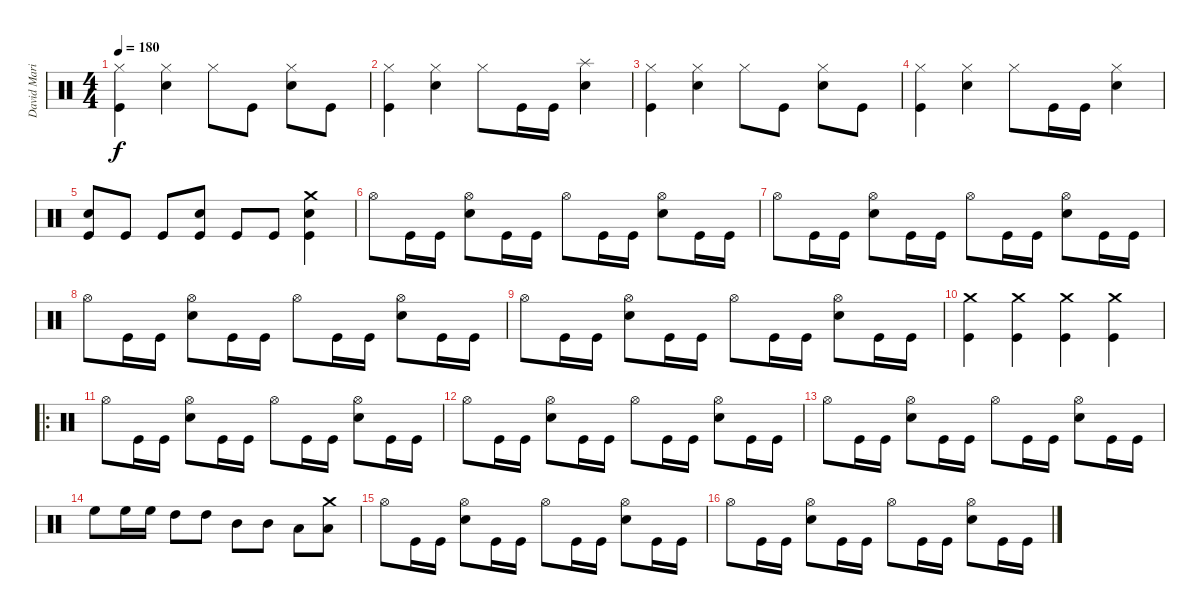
\track ("David Marinero" "David Mari") {instrument percussion}
\staff {score}
\articulation defaults
\ts (4 4)
\tempo 180
\clef neutral
\ks c
("Hi-Hat (closed)" "Kick (hit)").4{dy f} ("Hi-Hat (closed)" "Snare (hit) 2").4 "Hi-Hat (closed)".8 "Kick (hit)".8 ("Hi-Hat (closed)" "Snare (hit) 2").8 "Kick (hit)".8 |
("Hi-Hat (closed)" "Kick (hit)").4 ("Hi-Hat (closed)" "Snare (hit) 2").4 "Hi-Hat (closed)".8 "Kick (hit)".16 "Kick (hit)".16 ("Splash (hit)" "Snare (hit) 2").4 |
("Hi-Hat (closed)" "Kick (hit)").4 ("Hi-Hat (closed)" "Snare (hit) 2").4 "Hi-Hat (closed)".8 "Kick (hit)".8 ("Hi-Hat (closed)" "Snare (hit) 2").8 "Kick (hit)".8 |
("Hi-Hat (closed)" "Kick (hit)").4 ("Hi-Hat (closed)" "Snare (hit) 2").4 "Hi-Hat (closed)".8 "Kick (hit)".16 "Kick (hit)".16 ("Hi-Hat (closed)" "Snare (hit) 2").4 |
("Snare (hit) 2" "Kick (hit)").8 "Kick (hit)".8 "Kick (hit)".8 ("Snare (hit) 2" "Kick (hit)").8 "Kick (hit)".8 "Kick (hit)".8 ("Crash medium (hit)" "Snare (hit) 2" "Kick (hit)").4 |
"Hi-Hat (open)".8 "Kick (hit)".16 "Kick (hit)".16 ("Hi-Hat (open)" "Snare (hit) 2").8 "Kick (hit)".16 "Kick (hit)".16 "Hi-Hat (open)".8 "Kick (hit)".16 "Kick (hit)".16 ("Hi-Hat (open)" "Snare (hit) 2").8 "Kick (hit)".16 "Kick (hit)".16 |
"Hi-Hat (open)".8 "Kick (hit)".16 "Kick (hit)".16 ("Hi-Hat (open)" "Snare (hit) 2").8 "Kick (hit)".16 "Kick (hit)".16 "Hi-Hat (open)".8 "Kick (hit)".16 "Kick (hit)".16 ("Hi-Hat (open)" "Snare (hit) 2").8 "Kick (hit)".16 "Kick (hit)".16 |
"Hi-Hat (open)".8 "Kick (hit)".16 "Kick (hit)".16 ("Hi-Hat (open)" "Snare (hit) 2").8 "Kick (hit)".16 "Kick (hit)".16 "Hi-Hat (open)".8 "Kick (hit)".16 "Kick (hit)".16 ("Hi-Hat (open)" "Snare (hit) 2").8 "Kick (hit)".16 "Kick (hit)".16 |
"Hi-Hat (open)".8 "Kick (hit)".16 "Kick (hit)".16 ("Hi-Hat (open)" "Snare (hit) 2").8 "Kick (hit)".16 "Kick (hit)".16 "Hi-Hat (open)".8 "Kick (hit)".16 "Kick (hit)".16 ("Hi-Hat (open)" "Snare (hit) 2").8 "Kick (hit)".16 "Kick (hit)".16 |
("Crash medium (hit)" "Kick (hit)").4 ("Crash medium (hit)" "Kick (hit)").4 ("Crash medium (hit)" "Kick (hit)").4 ("Crash medium (hit)" "Kick (hit)").4 |
\ro "Hi-Hat (open)".8 "Kick (hit)".16 "Kick (hit)".16
("Hi-Hat (open)" "Snare (hit) 2").8 "Kick (hit)".16 "Kick (hit)".16 "Hi-Hat (open)".8 "Kick (hit)".16 "Kick (hit)".16 ("Hi-Hat (open)" "Snare (hit) 2").8 "Kick (hit)".16 "Kick (hit)".16 |
"Hi-Hat (open)".8 "Kick (hit)".16 "Kick (hit)".16 ("Hi-Hat (open)" "Snare (hit) 2").8 "Kick (hit)".16 "Kick (hit)".16 "Hi-Hat (open)".8 "Kick (hit)".16 "Kick (hit)".16 ("Hi-Hat (open)" "Snare (hit) 2").8 "Kick (hit)".16 "Kick (hit)".16 |
"Hi-Hat (open)".8 "Kick (hit)".16 "Kick (hit)".16 ("Hi-Hat (open)" "Snare (hit) 2").8 "Kick (hit)".16 "Kick (hit)".16 "Hi-Hat (open)".8 "Kick (hit)".16 "Kick (hit)".16 ("Hi-Hat (open)" "Snare (hit) 2").8 "Kick (hit)".16 "Kick (hit)".16 |
"High Floor Tom (hit)".8 "High Floor Tom (hit)".16 "High Floor Tom (hit)".16 "High Tom (hit)".8 "High Tom (hit)".8 "Mid Tom (hit)".8 "Mid Tom (hit)".8 "Low Tom (hit)".8 ("Crash medium (hit)" "Low Tom (hit)").8 |
"Hi-Hat (open)".8 "Kick (hit)".16 "Kick (hit)".16 ("Hi-Hat (open)" "Snare (hit) 2").8 "Kick (hit)".16 "Kick (hit)".16 "Hi-Hat (open)".8 "Kick (hit)".16 "Kick (hit)".16 ("Hi-Hat (open)" "Snare (hit) 2").8 "Kick (hit)".16 "Kick (hit)".16 |
"Hi-Hat (open)".8 "Kick (hit)".16 "Kick (hit)".16 ("Hi-Hat (open)" "Snare (hit) 2").8 "Kick (hit)".16 "Kick (hit)".16 "Hi-Hat (open)".8 "Kick (hit)".16 "Kick (hit)".16 ("Hi-Hat (open)" "Snare (hit) 2").8 "Kick (hit)".16 "Kick (hit)".16
